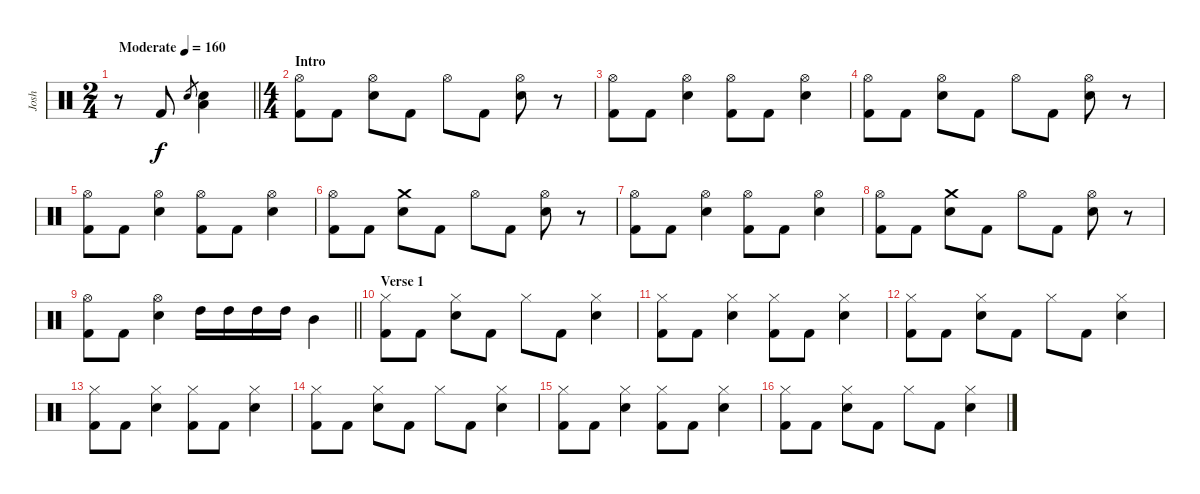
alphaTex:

\track ("Josh" "Josh") {instrument percussion}
\staff {score}
\articulation defaults
\ts (2 4)
\tempo (160 "Moderate")
\clef neutral
\barLineRight lightlight
\ks c
r.8{dy f} "Kick (hit) 2".8 "Electric Snare (hit)".8{gr} ("Low Floor Tom (hit)" "Electric Snare (hit)").4 |
\ts (4 4)
\section ("" "Intro ")
("Hi-Hat (open)" "Kick (hit) 2").8 "Kick (hit) 2".8 ("Hi-Hat (open)" "Electric Snare (hit)").8 "Kick (hit) 2".8 "Hi-Hat (open)".8 "Kick (hit) 2".8 ("Hi-Hat (open)" "Electric Snare (hit)").8 r.8 |
("Hi-Hat (open)" "Kick (hit) 2").8 "Kick (hit) 2".8 ("Hi-Hat (open)" "Electric Snare (hit)").4 ("Hi-Hat (open)" "Kick (hit) 2").8 "Kick (hit) 2".8 ("Hi-Hat (open)" "Electric Snare (hit)").4 |
("Hi-Hat (open)" "Kick (hit) 2").8 "Kick (hit) 2".8 ("Hi-Hat (open)" "Electric Snare (hit)").8 "Kick (hit) 2".8 "Hi-Hat (open)".8 "Kick (hit) 2".8 ("Hi-Hat (open)" "Electric Snare (hit)").8 r.8 |
("Hi-Hat (open)" "Kick (hit) 2").8 "Kick (hit) 2".8 ("Hi-Hat (open)" "Electric Snare (hit)").4 ("Hi-Hat (open)" "Kick (hit) 2").8 "Kick (hit) 2".8 ("Hi-Hat (open)" "Electric Snare (hit)").4 |
("Hi-Hat (open)" "Kick (hit) 2").8 "Kick (hit) 2".8 ("Crash medium (hit)" "Electric Snare (hit)").8 "Kick (hit) 2".8 "Hi-Hat (open)".8 "Kick (hit) 2".8 ("Hi-Hat (open)" "Electric Snare (hit)").8 r.8 |
("Hi-Hat (open)" "Kick (hit) 2").8 "Kick (hit) 2".8 ("Hi-Hat (open)" "Electric Snare (hit)").4 ("Hi-Hat (open)" "Kick (hit) 2").8 "Kick (hit) 2".8 ("Hi-Hat (open)" "Electric Snare (hit)").4 |
("Hi-Hat (open)" "Kick (hit) 2").8 "Kick (hit) 2".8 ("Crash medium (hit)" "Electric Snare (hit)").8 "Kick (hit) 2".8 "Hi-Hat (open)".8 "Kick (hit) 2".8 ("Hi-Hat (open)" "Electric Snare (hit)").8 r.8 |
\barLineRight lightlight
("Hi-Hat (open)" "Kick (hit) 2").8 "Kick (hit) 2".8 ("Hi-Hat (open)" "Electric Snare (hit)").4 "High Tom (hit)".16 "High Tom (hit)".16 "High Tom (hit)".16 "High Tom (hit)".16 "Mid Tom (hit)".4 |
\section ("" "Verse 1")
("Hi-Hat (closed)" "Kick (hit) 2").8 "Kick (hit) 2".8 ("Hi-Hat (closed)" "Electric Snare (hit)").8 "Kick (hit) 2".8 "Hi-Hat (closed)".8 "Kick (hit) 2".8 ("Hi-Hat (closed)" "Electric Snare (hit)").4 |
("Hi-Hat (closed)" "Kick (hit) 2").8 "Kick (hit) 2".8 ("Hi-Hat (closed)" "Electric Snare (hit)").4 ("Hi-Hat (closed)" "Kick (hit) 2").8 "Kick (hit) 2".8 ("Hi-Hat (closed)" "Electric Snare (hit)").4 |
("Hi-Hat (closed)" "Kick (hit) 2").8 "Kick (hit) 2".8 ("Hi-Hat (closed)" "Electric Snare (hit)").8 "Kick (hit) 2".8 "Hi-Hat (closed)".8 "Kick (hit) 2".8 ("Hi-Hat (closed)" "Electric Snare (hit)").4 |
("Hi-Hat (closed)" "Kick (hit) 2").8 "Kick (hit) 2".8 ("Hi-Hat (closed)" "Electric Snare (hit)").4 ("Hi-Hat (closed)" "Kick (hit) 2").8 "Kick (hit) 2".8 ("Hi-Hat (closed)" "Electric Snare (hit)").4 |
("Hi-Hat (closed)" "Kick (hit) 2").8 "Kick (hit) 2".8 ("Hi-Hat (closed)" "Electric Snare (hit)").8 "Kick (hit) 2".8 "Hi-Hat (closed)".8 "Kick (hit) 2".8 ("Hi-Hat (closed)" "Electric Snare (hit)").4 |
("Hi-Hat (closed)" "Kick (hit) 2").8 "Kick (hit) 2".8 ("Hi-Hat (closed)" "Electric Snare (hit)").4 ("Hi-Hat (closed)" "Kick (hit) 2").8 "Kick (hit) 2".8 ("Hi-Hat (closed)" "Electric Snare (hit)").4 |
("Hi-Hat (closed)" "Kick (hit) 2").8 "Kick (hit) 2".8 ("Hi-Hat (closed)" "Electric Snare (hit)").8 "Kick (hit) 2".8 "Hi-Hat (closed)".8 "Kick (hit) 2".8 ("Hi-Hat (closed)" "Electric Snare (hit)").4
